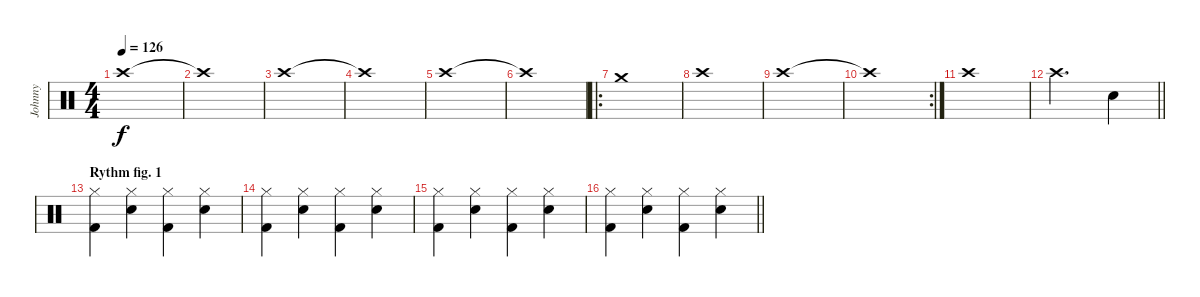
\track ("Johnny" "Johnny") {instrument percussion}
\staff {score}
\articulation defaults
\ts (4 4)
\tempo 126
\clef neutral
\ks c "Crash high (hit)".1{dy f}
|
"Crash high (hit)"{t}.1 |
"Crash high (hit)".1 |
"Crash high (hit)"{t}.1 |
"Crash high (hit)".1 |
"Crash high (hit)"{t}.1 |
\ro "Crash medium (hit)".1
|
"Crash high (hit)".1 |
"Crash high (hit)".1 |
\rc 2 "Crash high (hit)"{t}.1
|
"Crash high (hit)".1 |
\barLineRight lightlight "Crash high (hit)".2{d} "Electric Snare (hit)".4
|
\section ("" "Rythm fig. 1")
("Kick (hit) 2" "Hi-Hat (closed)").4 ("Electric Snare (hit)" "Hi-Hat (closed)").4 ("Kick (hit) 2" "Hi-Hat (closed)").4 ("Electric Snare (hit)" "Hi-Hat (closed)").4 |
("Kick (hit) 2" "Hi-Hat (closed)").4 ("Electric Snare (hit)" "Hi-Hat (closed)").4 ("Kick (hit) 2" "Hi-Hat (closed)").4 ("Electric Snare (hit)" "Hi-Hat (closed)").4 |
("Kick (hit) 2" "Hi-Hat (closed)").4 ("Electric Snare (hit)" "Hi-Hat (closed)").4 ("Kick (hit) 2" "Hi-Hat (closed)").4 ("Electric Snare (hit)" "Hi-Hat (closed)").4 |
\barLineRight lightlight
("Kick (hit) 2" "Hi-Hat (closed)").4 ("Electric Snare (hit)" "Hi-Hat (closed)").4 ("Kick (hit) 2" "Hi-Hat (closed)").4 ("Electric Snare (hit)" "Hi-Hat (closed)").4
